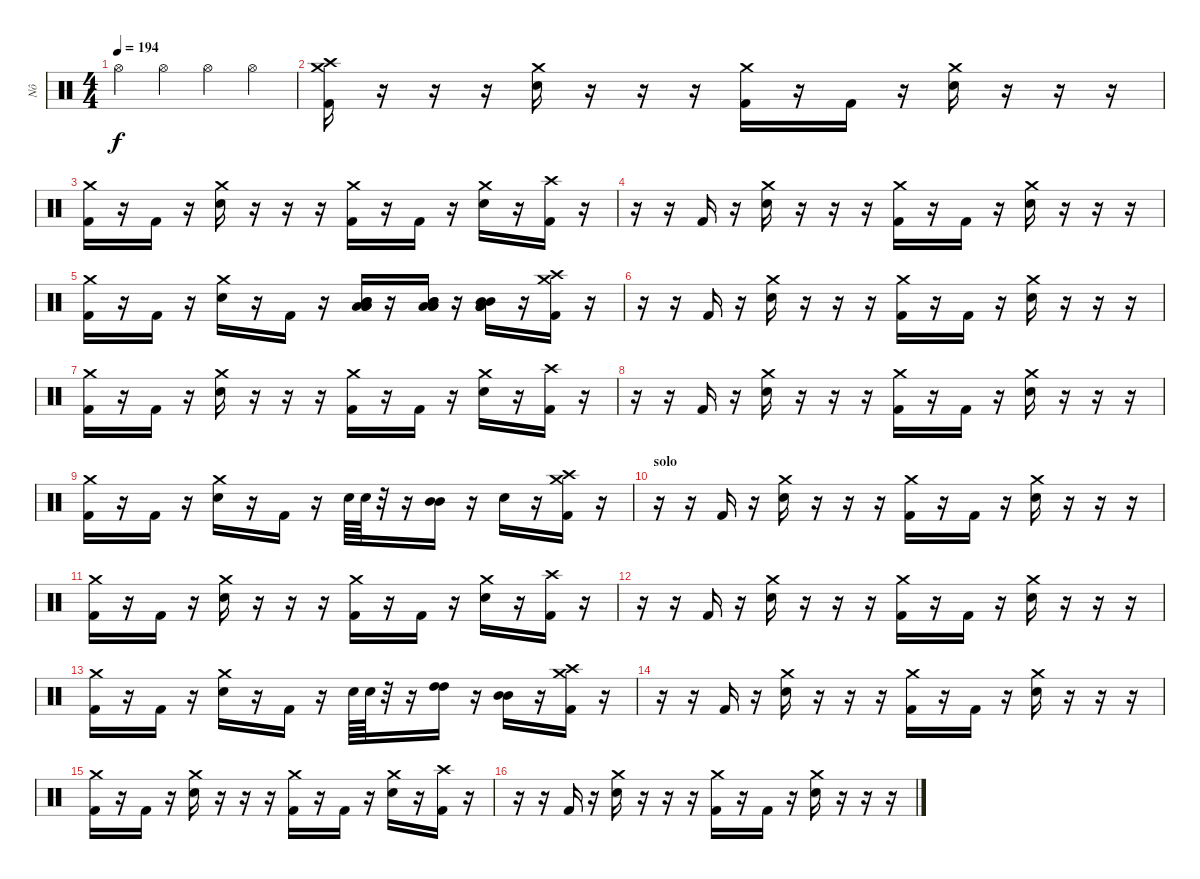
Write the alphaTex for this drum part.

\track ("Nô" "Nô") {instrument percussion}
\staff {score}
\articulation defaults
\ts (4 4)
\tempo 194
\clef neutral
\ks c "Hi-Hat (open)".4{dy f} "Hi-Hat (open)".4 "Hi-Hat (open)".4 "Hi-Hat (open)".4
|
("Crash medium (hit)" "Crash high (hit)" "Kick (hit) 2").16 r.16 r.16 r.16 ("Crash medium (hit)" "Electric Snare (hit)").16 r.16 r.16 r.16 ("Crash medium (hit)" "Kick (hit) 2").16 r.16 "Kick (hit) 2".16 r.16 ("Crash medium (hit)" "Electric Snare (hit)").16 r.16 r.16 r.16 |
("Crash medium (hit)" "Kick (hit) 2").16 r.16 "Kick (hit) 2".16 r.16 ("Crash medium (hit)" "Electric Snare (hit)").16 r.16 r.16 r.16 ("Crash medium (hit)" "Kick (hit) 2").16 r.16 "Kick (hit) 2".16 r.16 ("Crash medium (hit)" "Electric Snare (hit)").16 r.16 ("Crash high (hit)" "Kick (hit) 2").16 r.16 |
r.16 r.16 "Kick (hit) 2".16 r.16 ("Crash medium (hit)" "Electric Snare (hit)").16 r.16 r.16 r.16 ("Crash medium (hit)" "Kick (hit) 2").16 r.16 "Kick (hit) 2".16 r.16 ("Crash medium (hit)" "Electric Snare (hit)").16 r.16 r.16 r.16 |
("Crash medium (hit)" "Kick (hit) 2").16 r.16 "Kick (hit) 2".16 r.16 ("Crash medium (hit)" "Electric Snare (hit)").16 r.16 "Kick (hit) 2".16 r.16 ("Mid Tom (hit)" "Mid Tom (hit)" "Low Tom (hit)" "Low Tom (hit)" "Low Tom (hit)").16 r.16 ("Mid Tom (hit)" "Mid Tom (hit)" "Low Tom (hit)" "Low Tom (hit)" "Low Tom (hit)").16 r.16 ("Mid Tom (hit)" "Mid Tom (hit)" "Low Tom (hit)" "Low Tom (hit)" "Low Tom (hit)").16 r.16 ("Crash high (hit)" "Crash medium (hit)" "Kick (hit) 2").16 r.16 |
r.16 r.16 "Kick (hit) 2".16 r.16 ("Crash medium (hit)" "Electric Snare (hit)").16 r.16 r.16 r.16 ("Crash medium (hit)" "Kick (hit) 2").16 r.16 "Kick (hit) 2".16 r.16 ("Crash medium (hit)" "Electric Snare (hit)").16 r.16 r.16 r.16 |
("Crash medium (hit)" "Kick (hit) 2").16 r.16 "Kick (hit) 2".16 r.16 ("Crash medium (hit)" "Electric Snare (hit)").16 r.16 r.16 r.16 ("Crash medium (hit)" "Kick (hit) 2").16 r.16 "Kick (hit) 2".16 r.16 ("Crash medium (hit)" "Electric Snare (hit)").16 r.16 ("Crash high (hit)" "Kick (hit) 2").16 r.16 |
r.16 r.16 "Kick (hit) 2".16 r.16 ("Crash medium (hit)" "Electric Snare (hit)").16 r.16 r.16 r.16 ("Crash medium (hit)" "Kick (hit) 2").16 r.16 "Kick (hit) 2".16 r.16 ("Crash medium (hit)" "Electric Snare (hit)").16 r.16 r.16 r.16 |
("Crash medium (hit)" "Kick (hit) 2").16 r.16 "Kick (hit) 2".16 r.16 ("Crash medium (hit)" "Electric Snare (hit)").16 r.16 "Kick (hit) 2".16 r.16 "Electric Snare (hit)".64 "Electric Snare (hit)".64 r.32 r.16 ("Mid Tom (hit)" "Mid Tom (hit)").16 r.16 "Electric Snare (hit)".16 r.16 ("Crash high (hit)" "Crash medium (hit)" "Kick (hit) 2").16 r.16 |
\section ("" "solo")
r.16 r.16 "Kick (hit) 2".16 r.16 ("Crash medium (hit)" "Electric Snare (hit)").16 r.16 r.16 r.16 ("Crash medium (hit)" "Kick (hit) 2").16 r.16 "Kick (hit) 2".16 r.16 ("Crash medium (hit)" "Electric Snare (hit)").16 r.16 r.16 r.16 |
("Crash medium (hit)" "Kick (hit) 2").16 r.16 "Kick (hit) 2".16 r.16 ("Crash medium (hit)" "Electric Snare (hit)").16 r.16 r.16 r.16 ("Crash medium (hit)" "Kick (hit) 2").16 r.16 "Kick (hit) 2".16 r.16 ("Crash medium (hit)" "Electric Snare (hit)").16 r.16 ("Crash high (hit)" "Kick (hit) 2").16 r.16 |
r.16 r.16 "Kick (hit) 2".16 r.16 ("Crash medium (hit)" "Electric Snare (hit)").16 r.16 r.16 r.16 ("Crash medium (hit)" "Kick (hit) 2").16 r.16 "Kick (hit) 2".16 r.16 ("Crash medium (hit)" "Electric Snare (hit)").16 r.16 r.16 r.16 |
("Crash medium (hit)" "Kick (hit) 2").16 r.16 "Kick (hit) 2".16 r.16 ("Crash medium (hit)" "Electric Snare (hit)").16 r.16 "Kick (hit) 2".16 r.16 "Electric Snare (hit)".64 "Electric Snare (hit)".64 r.32 r.16 ("High Tom (hit)" "High Tom (hit)").16 r.16 ("Mid Tom (hit)" "Mid Tom (hit)").16 r.16 ("Crash high (hit)" "Crash medium (hit)" "Kick (hit) 2").16 r.16 |
r.16 r.16 "Kick (hit) 2".16 r.16 ("Crash medium (hit)" "Electric Snare (hit)").16 r.16 r.16 r.16 ("Crash medium (hit)" "Kick (hit) 2").16 r.16 "Kick (hit) 2".16 r.16 ("Crash medium (hit)" "Electric Snare (hit)").16 r.16 r.16 r.16 |
("Crash medium (hit)" "Kick (hit) 2").16 r.16 "Kick (hit) 2".16 r.16 ("Crash medium (hit)" "Electric Snare (hit)").16 r.16 r.16 r.16 ("Crash medium (hit)" "Kick (hit) 2").16 r.16 "Kick (hit) 2".16 r.16 ("Crash medium (hit)" "Electric Snare (hit)").16 r.16 ("Crash high (hit)" "Kick (hit) 2").16 r.16 |
r.16 r.16 "Kick (hit) 2".16 r.16 ("Crash medium (hit)" "Electric Snare (hit)").16 r.16 r.16 r.16 ("Crash medium (hit)" "Kick (hit) 2").16 r.16 "Kick (hit) 2".16 r.16 ("Crash medium (hit)" "Electric Snare (hit)").16 r.16 r.16 r.16
